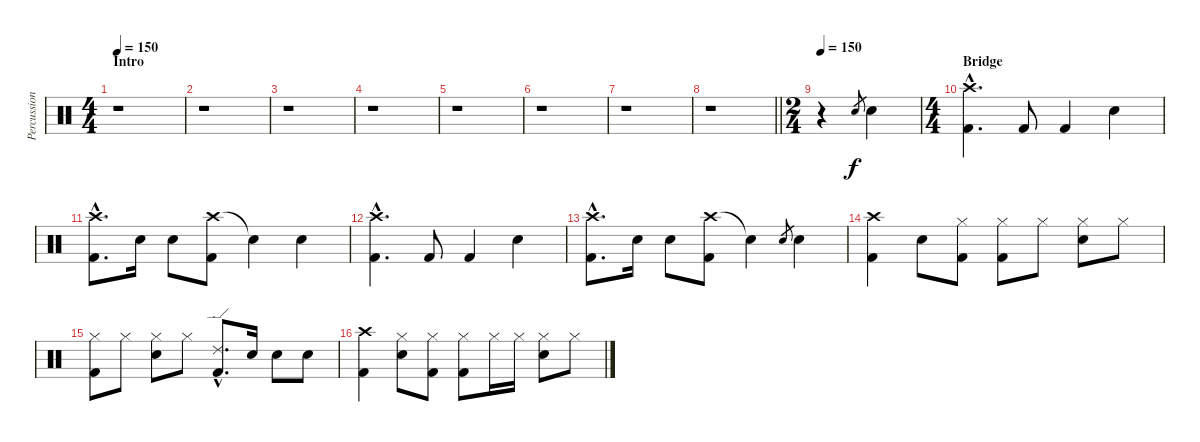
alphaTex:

\track ("Percussion" "Percussion") {instrument percussion}
\staff {score}
\articulation defaults
\ts (4 4)
\section ("" "Intro")
\tempo 150
\tempo 100
\tempo 150
\clef neutral
\ks c
r.1{dy f} |
r.1 |
r.1 |
r.1 |
r.1 |
r.1 |
r.1 |
\barLineRight lightlight
r.1 |
\ts (2 4)
\tempo 150
r.4 "Snare (hit) 2".8{gr} "Snare (hit) 2".4 |
\ts (4 4)
\section ("" "Bridge")
("Crash high (hit)"{hac} "Kick (hit) 2"{hac}).4{d} "Kick (hit) 2".8 "Kick (hit) 2".4 "Snare (hit) 2".4 |
("Crash high (hit)"{hac} "Kick (hit) 2"{hac}).8{d} "Snare (hit) 2".16 "Snare (hit) 2".8 ("Crash high (hit)" "Kick (hit) 2").8 "Snare (hit)"{t}.4 "Snare (hit) 2".4 |
("Crash high (hit)"{hac} "Kick (hit) 2"{hac}).4{d} "Kick (hit) 2".8 "Kick (hit) 2".4 "Snare (hit) 2".4 |
("Crash high (hit)"{hac} "Kick (hit) 2"{hac}).8{d} "Snare (hit) 2".16 "Snare (hit) 2".8 ("Crash high (hit)" "Kick (hit) 2").8 "Snare (hit)"{t}.4 "Snare (hit) 2".8{gr} "Snare (hit) 2".4 |
("Crash high (hit)" "Kick (hit) 2").4 "Snare (hit) 2".8 ("Hi-Hat (closed)" "Kick (hit) 2").8 ("Hi-Hat (closed)" "Kick (hit) 2").8 "Hi-Hat (closed)".8 ("Hi-Hat (closed)" "Snare (hit) 2").8 "Hi-Hat (closed)".8 |
("Hi-Hat (closed)" "Kick (hit) 2").8 "Hi-Hat (closed)".8 ("Hi-Hat (closed)" "Snare (hit) 2").8 "Hi-Hat (closed)".8 ("Ride (edge) 2"{hac} "Kick (hit) 2"{hac}).8{d} "Snare (hit) 2".16 "Snare (hit) 2".8 "Snare (hit) 2".8 |
("Crash high (hit)" "Kick (hit) 2").4 ("Hi-Hat (closed)" "Snare (hit) 2").8 ("Hi-Hat (closed)" "Kick (hit) 2").8 ("Hi-Hat (closed)" "Kick (hit) 2").8 "Hi-Hat (closed)".16 "Hi-Hat (closed)".16 ("Hi-Hat (closed)" "Snare (hit) 2").8 "Hi-Hat (closed)".8
